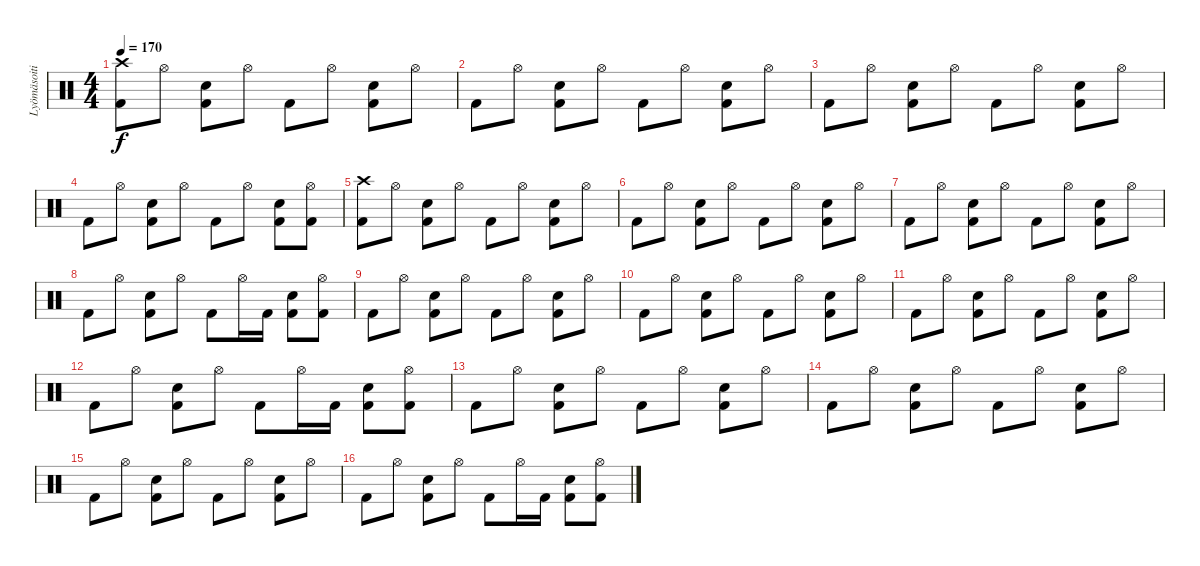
\track ("Lyömäsoitin" "Lyömäsoiti") {instrument percussion}
\staff {score}
\articulation defaults
\ts (4 4)
\tempo 170
\clef neutral
\ks c
("Crash high (hit)" "Kick (hit) 2").8{dy f} "Hi-Hat (open)".8 ("Snare (hit) 2" "Kick (hit) 2").8 "Hi-Hat (open)".8 "Kick (hit) 2".8 "Hi-Hat (open)".8 ("Snare (hit) 2" "Kick (hit) 2").8 "Hi-Hat (open)".8 |
"Kick (hit) 2".8 "Hi-Hat (open)".8 ("Snare (hit) 2" "Kick (hit) 2").8 "Hi-Hat (open)".8 "Kick (hit) 2".8 "Hi-Hat (open)".8 ("Snare (hit) 2" "Kick (hit) 2").8 "Hi-Hat (open)".8 |
"Kick (hit) 2".8 "Hi-Hat (open)".8 ("Snare (hit) 2" "Kick (hit) 2").8 "Hi-Hat (open)".8 "Kick (hit) 2".8 "Hi-Hat (open)".8 ("Snare (hit) 2" "Kick (hit) 2").8 "Hi-Hat (open)".8 |
"Kick (hit) 2".8 "Hi-Hat (open)".8 ("Snare (hit) 2" "Kick (hit) 2").8 "Hi-Hat (open)".8 "Kick (hit) 2".8 "Hi-Hat (open)".8 ("Snare (hit) 2" "Kick (hit) 2").8 ("Hi-Hat (open)" "Kick (hit) 2").8 |
("Crash high (hit)" "Kick (hit) 2").8 "Hi-Hat (open)".8 ("Snare (hit) 2" "Kick (hit) 2").8 "Hi-Hat (open)".8 "Kick (hit) 2".8 "Hi-Hat (open)".8 ("Snare (hit) 2" "Kick (hit) 2").8 "Hi-Hat (open)".8 |
"Kick (hit) 2".8 "Hi-Hat (open)".8 ("Snare (hit) 2" "Kick (hit) 2").8 "Hi-Hat (open)".8 "Kick (hit) 2".8 "Hi-Hat (open)".8 ("Snare (hit) 2" "Kick (hit) 2").8 "Hi-Hat (open)".8 |
"Kick (hit) 2".8 "Hi-Hat (open)".8 ("Snare (hit) 2" "Kick (hit) 2").8 "Hi-Hat (open)".8 "Kick (hit) 2".8 "Hi-Hat (open)".8 ("Snare (hit) 2" "Kick (hit) 2").8 "Hi-Hat (open)".8 |
"Kick (hit) 2".8 "Hi-Hat (open)".8 ("Snare (hit) 2" "Kick (hit) 2").8 "Hi-Hat (open)".8 "Kick (hit) 2".8 "Hi-Hat (open)".16 "Kick (hit) 2".16 ("Snare (hit) 2" "Kick (hit) 2").8 ("Hi-Hat (open)" "Kick (hit) 2").8 |
"Kick (hit) 2".8 "Hi-Hat (open)".8 ("Snare (hit) 2" "Kick (hit) 2").8 "Hi-Hat (open)".8 "Kick (hit) 2".8 "Hi-Hat (open)".8 ("Snare (hit) 2" "Kick (hit) 2").8 "Hi-Hat (open)".8 |
"Kick (hit) 2".8 "Hi-Hat (open)".8 ("Snare (hit) 2" "Kick (hit) 2").8 "Hi-Hat (open)".8 "Kick (hit) 2".8 "Hi-Hat (open)".8 ("Snare (hit) 2" "Kick (hit) 2").8 "Hi-Hat (open)".8 |
"Kick (hit) 2".8 "Hi-Hat (open)".8 ("Snare (hit) 2" "Kick (hit) 2").8 "Hi-Hat (open)".8 "Kick (hit) 2".8 "Hi-Hat (open)".8 ("Snare (hit) 2" "Kick (hit) 2").8 "Hi-Hat (open)".8 |
"Kick (hit) 2".8 "Hi-Hat (open)".8 ("Snare (hit) 2" "Kick (hit) 2").8 "Hi-Hat (open)".8 "Kick (hit) 2".8 "Hi-Hat (open)".16 "Kick (hit) 2".16 ("Snare (hit) 2" "Kick (hit) 2").8 ("Hi-Hat (open)" "Kick (hit) 2").8 |
"Kick (hit) 2".8 "Hi-Hat (open)".8 ("Snare (hit) 2" "Kick (hit) 2").8 "Hi-Hat (open)".8 "Kick (hit) 2".8 "Hi-Hat (open)".8 ("Snare (hit) 2" "Kick (hit) 2").8 "Hi-Hat (open)".8 |
"Kick (hit) 2".8 "Hi-Hat (open)".8 ("Snare (hit) 2" "Kick (hit) 2").8 "Hi-Hat (open)".8 "Kick (hit) 2".8 "Hi-Hat (open)".8 ("Snare (hit) 2" "Kick (hit) 2").8 "Hi-Hat (open)".8 |
"Kick (hit) 2".8 "Hi-Hat (open)".8 ("Snare (hit) 2" "Kick (hit) 2").8 "Hi-Hat (open)".8 "Kick (hit) 2".8 "Hi-Hat (open)".8 ("Snare (hit) 2" "Kick (hit) 2").8 "Hi-Hat (open)".8 |
"Kick (hit) 2".8 "Hi-Hat (open)".8 ("Snare (hit) 2" "Kick (hit) 2").8 "Hi-Hat (open)".8 "Kick (hit) 2".8 "Hi-Hat (open)".16 "Kick (hit) 2".16 ("Snare (hit) 2" "Kick (hit) 2").8 ("Hi-Hat (open)" "Kick (hit) 2").8
